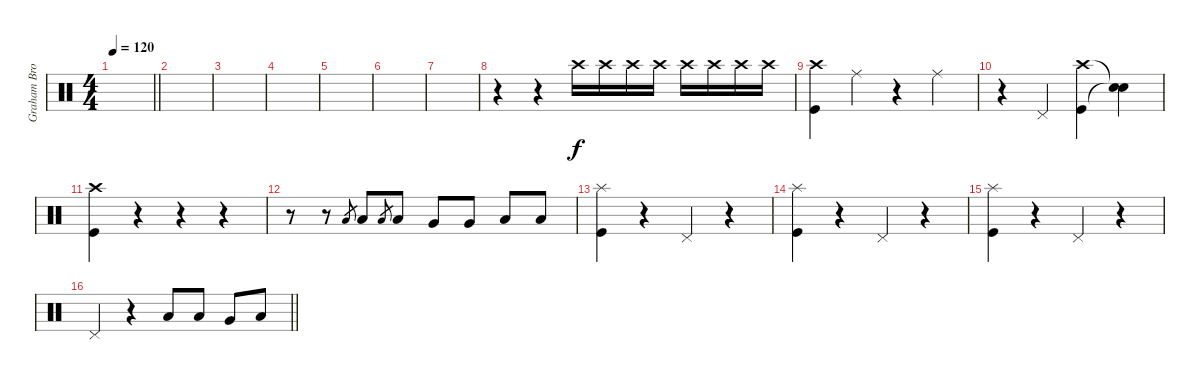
\track ("Graham Broad (Drums)" "Graham Bro") {instrument percussion}
\staff {score}
\articulation defaults
\ts (4 4)
\tempo 120
\clef neutral
\barLineRight lightlight
\ks c
|
|
|
|
|
|
|
r.4{volume 0} r.4 "Crash high (hit)".16{volume 13} "Crash high (hit)".16 "Crash high (hit)".16 "Crash high (hit)".16 "Crash high (hit)".16 "Crash high (hit)".16 "Crash high (hit)".16 "Crash high (hit)".16 |
("Crash high (hit)" "Kick (hit)").4 "Ride (middle)".4 r.4 "Ride (middle)".4 |
r.4 "Pedal Hi-Hat (hit)".4 ("Crash high (hit)" "Kick (hit)").4 ("Snare (hit)"{t} "Snare (hit)"{t}).4 |
("Crash high (hit)" "Kick (hit)").4 r.4 r.4 r.4 |
r.8 r.8 "Low Tom (hit)".8{gr} "Low Tom (hit)".8 "Low Tom (hit)".8{gr} "Low Tom (hit)".8 "Very Low Tom (hit)".8 "Very Low Tom (hit)".8 "Low Floor Tom (hit)".8 "Low Floor Tom (hit)".8 |
("Splash (hit)" "Kick (hit)").4 r.4 "Pedal Hi-Hat (hit)".4 r.4 |
("Splash (hit)" "Kick (hit)").4 r.4 "Pedal Hi-Hat (hit)".4 r.4 |
("Splash (hit)" "Kick (hit)").4 r.4 "Pedal Hi-Hat (hit)".4 r.4 |
\barLineRight lightlight "Pedal Hi-Hat (hit)".4
r.4 "Low Tom (hit)".8 "Low Tom (hit)".8 "Very Low Tom (hit)".8 "Low Floor Tom (hit)".8
